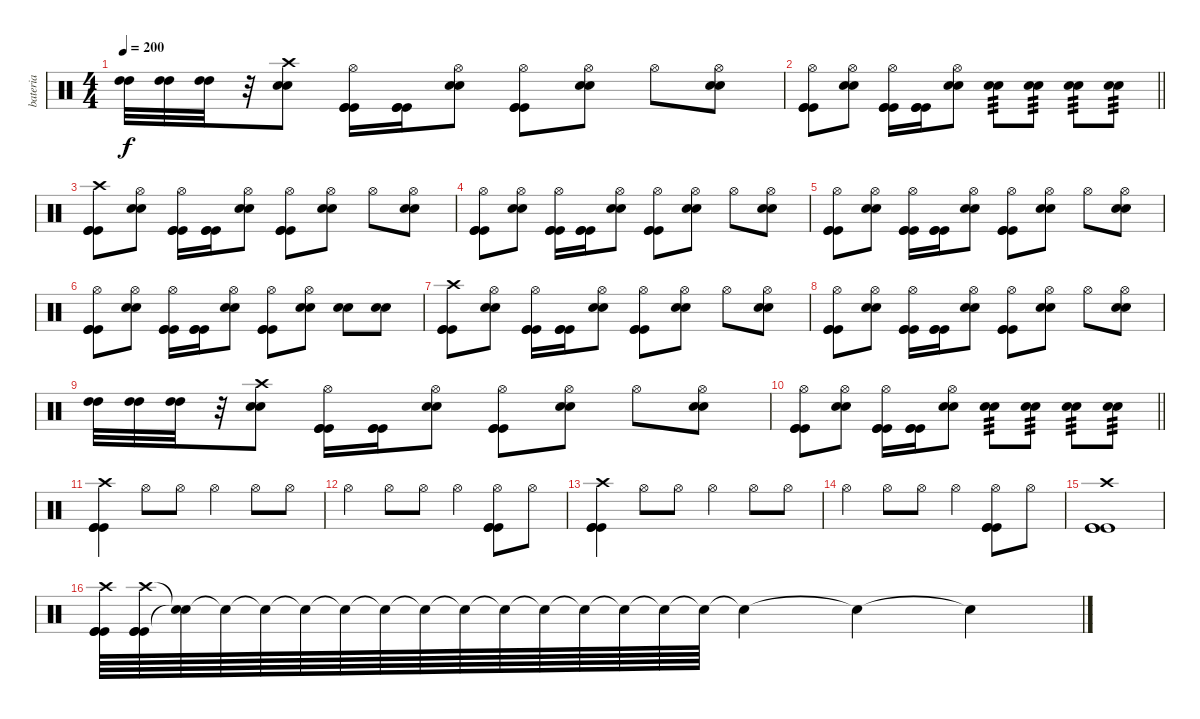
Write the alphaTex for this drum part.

\track ("bateria" "bateria") {instrument percussion}
\staff {score}
\articulation defaults
\ts (4 4)
\tempo 200
\clef neutral
\ks c
("High Tom (hit)" "High Tom (hit)").32{dy f} ("High Tom (hit)" "High Tom (hit)").32 ("High Tom (hit)" "High Tom (hit)").32 r.32 ("Electric Snare (hit)" "Crash high (hit)" "Electric Snare (hit)").8 ("Hi-Hat (open)" "Kick (hit)" "Kick (hit)" "Kick (hit)").16 ("Kick (hit)" "Kick (hit)" "Kick (hit)").16 ("Electric Snare (hit)" "Hi-Hat (open)" "Electric Snare (hit)").8 ("Hi-Hat (open)" "Kick (hit)" "Kick (hit)" "Kick (hit)").8 ("Electric Snare (hit)" "Hi-Hat (open)" "Electric Snare (hit)").8 "Hi-Hat (open)".8 ("Electric Snare (hit)" "Hi-Hat (open)" "Electric Snare (hit)").8 |
\barLineRight lightlight
("Hi-Hat (open)" "Kick (hit)" "Kick (hit)" "Kick (hit)").8 ("Electric Snare (hit)" "Hi-Hat (open)" "Electric Snare (hit)").8 ("Hi-Hat (open)" "Kick (hit)" "Kick (hit)" "Kick (hit)").16 ("Kick (hit)" "Kick (hit)" "Kick (hit)").16 ("Electric Snare (hit)" "Hi-Hat (open)" "Electric Snare (hit)").8 ("Electric Snare (hit)" "Electric Snare (hit)").8{tp 3 volume 11} ("Electric Snare (hit)" "Electric Snare (hit)").8{tp 3} ("Electric Snare (hit)" "Electric Snare (hit)").8{tp 3 volume 11} ("Electric Snare (hit)" "Electric Snare (hit)").8{tp 3} |
("Crash high (hit)" "Kick (hit)" "Kick (hit)" "Kick (hit)").8 ("Electric Snare (hit)" "Hi-Hat (open)" "Electric Snare (hit)").8 ("Hi-Hat (open)" "Kick (hit)" "Kick (hit)" "Kick (hit)").16 ("Kick (hit)" "Kick (hit)" "Kick (hit)").16 ("Electric Snare (hit)" "Hi-Hat (open)" "Electric Snare (hit)").8 ("Hi-Hat (open)" "Kick (hit)" "Kick (hit)" "Kick (hit)").8 ("Electric Snare (hit)" "Hi-Hat (open)" "Electric Snare (hit)").8 "Hi-Hat (open)".8 ("Electric Snare (hit)" "Hi-Hat (open)" "Electric Snare (hit)").8 |
("Hi-Hat (open)" "Kick (hit)" "Kick (hit)" "Kick (hit)").8 ("Electric Snare (hit)" "Hi-Hat (open)" "Electric Snare (hit)").8 ("Hi-Hat (open)" "Kick (hit)" "Kick (hit)" "Kick (hit)").16 ("Kick (hit)" "Kick (hit)" "Kick (hit)").16 ("Electric Snare (hit)" "Hi-Hat (open)" "Electric Snare (hit)").8 ("Hi-Hat (open)" "Kick (hit)" "Kick (hit)" "Kick (hit)").8 ("Electric Snare (hit)" "Hi-Hat (open)" "Electric Snare (hit)").8 "Hi-Hat (open)".8 ("Electric Snare (hit)" "Hi-Hat (open)" "Electric Snare (hit)").8 |
("Hi-Hat (open)" "Kick (hit)" "Kick (hit)" "Kick (hit)").8 ("Electric Snare (hit)" "Hi-Hat (open)" "Electric Snare (hit)").8 ("Hi-Hat (open)" "Kick (hit)" "Kick (hit)" "Kick (hit)").16 ("Kick (hit)" "Kick (hit)" "Kick (hit)").16 ("Electric Snare (hit)" "Hi-Hat (open)" "Electric Snare (hit)").8 ("Hi-Hat (open)" "Kick (hit)" "Kick (hit)" "Kick (hit)").8 ("Electric Snare (hit)" "Hi-Hat (open)" "Electric Snare (hit)").8 "Hi-Hat (open)".8 ("Electric Snare (hit)" "Hi-Hat (open)" "Electric Snare (hit)").8 |
("Hi-Hat (open)" "Kick (hit)" "Kick (hit)" "Kick (hit)").8 ("Electric Snare (hit)" "Hi-Hat (open)" "Electric Snare (hit)").8 ("Hi-Hat (open)" "Kick (hit)" "Kick (hit)" "Kick (hit)").16 ("Kick (hit)" "Kick (hit)" "Kick (hit)").16 ("Electric Snare (hit)" "Hi-Hat (open)" "Electric Snare (hit)").8 ("Hi-Hat (open)" "Kick (hit)" "Kick (hit)" "Kick (hit)").8 ("Electric Snare (hit)" "Hi-Hat (open)" "Electric Snare (hit)").8 ("Electric Snare (hit)" "Electric Snare (hit)").8 ("Electric Snare (hit)" "Electric Snare (hit)").8 |
("Crash high (hit)" "Kick (hit)" "Kick (hit)" "Kick (hit)").8 ("Electric Snare (hit)" "Hi-Hat (open)" "Electric Snare (hit)").8 ("Hi-Hat (open)" "Kick (hit)" "Kick (hit)" "Kick (hit)").16 ("Kick (hit)" "Kick (hit)" "Kick (hit)").16 ("Electric Snare (hit)" "Hi-Hat (open)" "Electric Snare (hit)").8 ("Hi-Hat (open)" "Kick (hit)" "Kick (hit)" "Kick (hit)").8 ("Electric Snare (hit)" "Hi-Hat (open)" "Electric Snare (hit)").8 "Hi-Hat (open)".8 ("Electric Snare (hit)" "Hi-Hat (open)" "Electric Snare (hit)").8 |
("Hi-Hat (open)" "Kick (hit)" "Kick (hit)" "Kick (hit)").8 ("Electric Snare (hit)" "Hi-Hat (open)" "Electric Snare (hit)").8 ("Hi-Hat (open)" "Kick (hit)" "Kick (hit)" "Kick (hit)").16 ("Kick (hit)" "Kick (hit)" "Kick (hit)").16 ("Electric Snare (hit)" "Hi-Hat (open)" "Electric Snare (hit)").8 ("Hi-Hat (open)" "Kick (hit)" "Kick (hit)" "Kick (hit)").8 ("Electric Snare (hit)" "Hi-Hat (open)" "Electric Snare (hit)").8 "Hi-Hat (open)".8 ("Electric Snare (hit)" "Hi-Hat (open)" "Electric Snare (hit)").8 |
("High Tom (hit)" "High Tom (hit)").32 ("High Tom (hit)" "High Tom (hit)").32 ("High Tom (hit)" "High Tom (hit)").32 r.32 ("Electric Snare (hit)" "Crash high (hit)" "Electric Snare (hit)").8 ("Hi-Hat (open)" "Kick (hit)" "Kick (hit)" "Kick (hit)").16 ("Kick (hit)" "Kick (hit)" "Kick (hit)").16 ("Electric Snare (hit)" "Hi-Hat (open)" "Electric Snare (hit)").8 ("Hi-Hat (open)" "Kick (hit)" "Kick (hit)" "Kick (hit)").8 ("Electric Snare (hit)" "Hi-Hat (open)" "Electric Snare (hit)").8 "Hi-Hat (open)".8 ("Electric Snare (hit)" "Hi-Hat (open)" "Electric Snare (hit)").8 |
\barLineRight lightlight
("Hi-Hat (open)" "Kick (hit)" "Kick (hit)" "Kick (hit)").8 ("Electric Snare (hit)" "Hi-Hat (open)" "Electric Snare (hit)").8 ("Hi-Hat (open)" "Kick (hit)" "Kick (hit)" "Kick (hit)").16 ("Kick (hit)" "Kick (hit)" "Kick (hit)").16 ("Electric Snare (hit)" "Hi-Hat (open)" "Electric Snare (hit)").8 ("Electric Snare (hit)" "Electric Snare (hit)").8{tp 3 volume 11} ("Electric Snare (hit)" "Electric Snare (hit)").8{tp 3} ("Electric Snare (hit)" "Electric Snare (hit)").8{tp 3 volume 11} ("Electric Snare (hit)" "Electric Snare (hit)").8{tp 3} |
("Crash high (hit)" "Kick (hit)" "Kick (hit)" "Kick (hit)").4 "Hi-Hat (open)".8 "Hi-Hat (open)".8 "Hi-Hat (open)".4 "Hi-Hat (open)".8 "Hi-Hat (open)".8 |
"Hi-Hat (open)".4 "Hi-Hat (open)".8 "Hi-Hat (open)".8 "Hi-Hat (open)".4 ("Hi-Hat (open)" "Kick (hit)" "Kick (hit)" "Kick (hit)").8 "Hi-Hat (open)".8 |
("Crash high (hit)" "Kick (hit)" "Kick (hit)" "Kick (hit)").4 "Hi-Hat (open)".8 "Hi-Hat (open)".8 "Hi-Hat (open)".4 "Hi-Hat (open)".8 "Hi-Hat (open)".8 |
"Hi-Hat (open)".4 "Hi-Hat (open)".8 "Hi-Hat (open)".8 "Hi-Hat (open)".4 ("Hi-Hat (open)" "Kick (hit)" "Kick (hit)" "Kick (hit)").8 "Hi-Hat (open)".8 |
("Kick (hit)" "Crash high (hit)" "Kick (hit)" "Kick (hit)").1 |
("Crash high (hit)" "Kick (hit)" "Kick (hit)" "Kick (hit)").64{volume 0} ("Crash high (hit)" "Kick (hit)" "Kick (hit)" "Kick (hit)").64{volume 16} ("Snare (hit)"{t} "Snare (hit)"{t}).64 "Snare (hit)"{t}.64 "Snare (hit)"{t}.64 "Snare (hit)"{t}.64 "Snare (hit)"{t}.64 "Snare (hit)"{t}.64 "Snare (hit)"{t}.64 "Snare (hit)"{t}.64 "Snare (hit)"{t}.64 "Snare (hit)"{t}.64 "Snare (hit)"{t}.64 "Snare (hit)"{t}.64 "Snare (hit)"{t}.64 "Snare (hit)"{t}.64 "Snare (hit)"{t}.4 "Snare (hit)"{t}.4 "Snare (hit)"{t}.4
